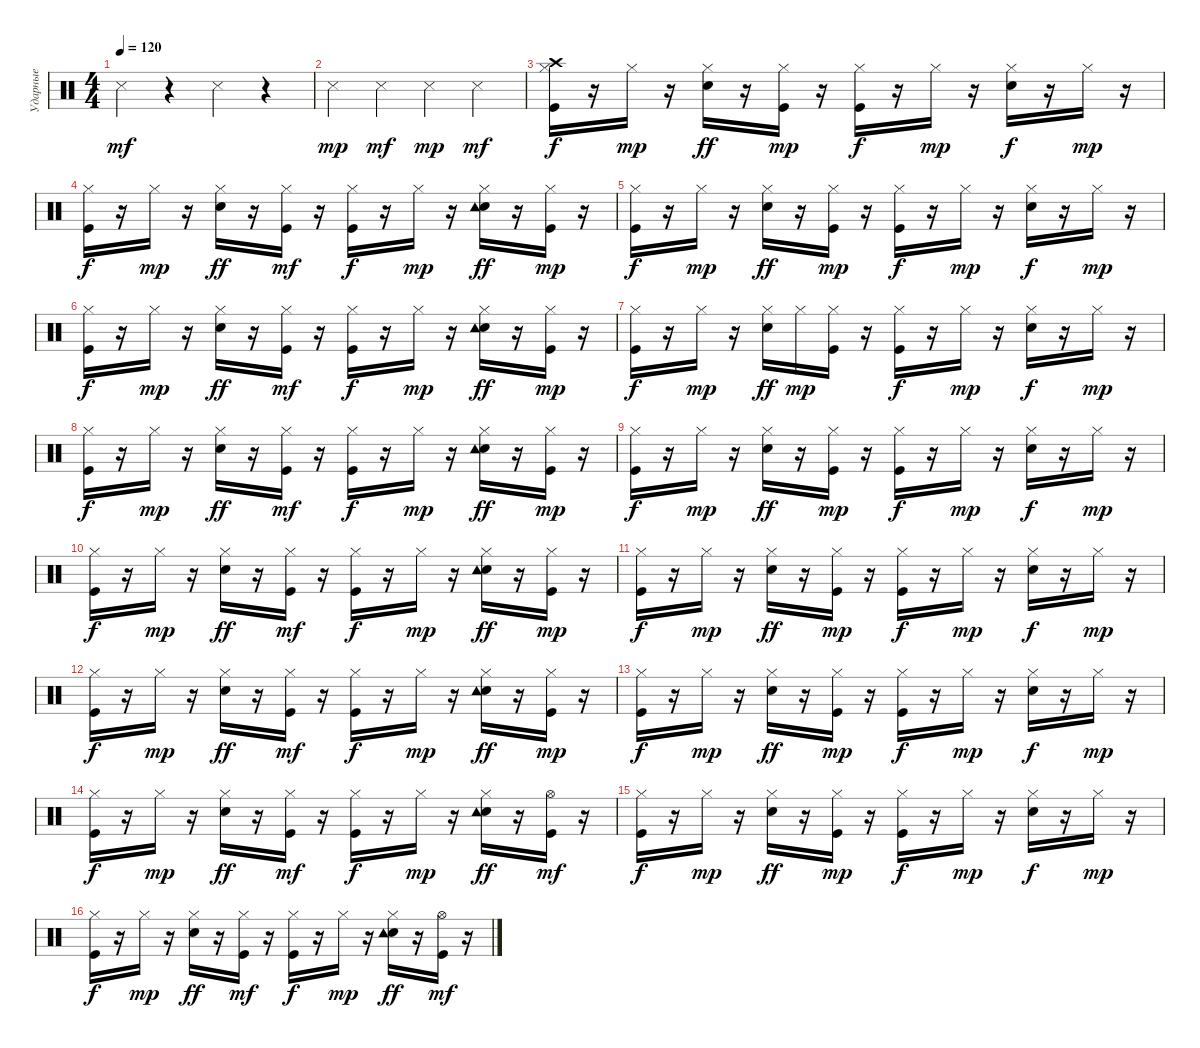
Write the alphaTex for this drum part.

\track ("Ударные" "Ударные") {instrument percussion}
\staff {score}
\articulation defaults
\ts (4 4)
\tempo 120
\clef neutral
\ks c "Snare (side stick) 3".4{dy mf}
r.4 "Snare (side stick) 3".4 r.4 |
"Snare (side stick) 3".4{dy mp} "Snare (side stick) 3".4{dy mf} "Snare (side stick) 3".4{dy mp} "Snare (side stick) 3".4{dy mf} |
("Kick (hit)" "Hi-Hat (closed)" "Crash high (hit)").16{dy f} r.16 "Hi-Hat (closed)".16{dy mp} r.16 ("Snare (hit) 2" "Hi-Hat (closed)").16{dy ff} r.16 ("Kick (hit)" "Hi-Hat (closed)").16{dy mp} r.16 ("Kick (hit)" "Hi-Hat (closed)").16{dy f} r.16 "Hi-Hat (closed)".16{dy mp} r.16 ("Snare (hit) 2" "Hi-Hat (closed)").16{dy f} r.16 "Hi-Hat (closed)".16{dy mp} r.16 |
("Kick (hit)" "Hi-Hat (closed)").16{dy f} r.16 "Hi-Hat (closed)".16{dy mp} r.16 ("Snare (hit) 2" "Hi-Hat (closed)").16{dy ff} r.16 ("Kick (hit)" "Hi-Hat (closed)").16{dy mf} r.16 ("Kick (hit)" "Hi-Hat (closed)").16{dy f} r.16 "Hi-Hat (closed)".16{dy mp} r.16 ("Snare (hit) 2" "Hi-Hat (closed)" "Tambourine (hit)").16{dy ff} r.16 ("Kick (hit)" "Hi-Hat (closed)").16{dy mp} r.16 |
("Kick (hit)" "Hi-Hat (closed)").16{dy f} r.16 "Hi-Hat (closed)".16{dy mp} r.16 ("Snare (hit) 2" "Hi-Hat (closed)").16{dy ff} r.16 ("Kick (hit)" "Hi-Hat (closed)").16{dy mp} r.16 ("Kick (hit)" "Hi-Hat (closed)").16{dy f} r.16 "Hi-Hat (closed)".16{dy mp} r.16 ("Snare (hit) 2" "Hi-Hat (closed)").16{dy f} r.16 "Hi-Hat (closed)".16{dy mp} r.16 |
("Kick (hit)" "Hi-Hat (closed)").16{dy f} r.16 "Hi-Hat (closed)".16{dy mp} r.16 ("Snare (hit) 2" "Hi-Hat (closed)").16{dy ff} r.16 ("Kick (hit)" "Hi-Hat (closed)").16{dy mf} r.16 ("Kick (hit)" "Hi-Hat (closed)").16{dy f} r.16 "Hi-Hat (closed)".16{dy mp} r.16 ("Snare (hit) 2" "Hi-Hat (closed)" "Tambourine (hit)").16{dy ff} r.16 ("Kick (hit)" "Hi-Hat (closed)").16{dy mp} r.16 |
("Kick (hit)" "Hi-Hat (closed)").16{dy f} r.16 "Hi-Hat (closed)".16{dy mp} r.16 ("Snare (hit) 2" "Hi-Hat (closed)").16{dy ff} "Hi-Hat (closed)".16{dy mp} ("Kick (hit)" "Hi-Hat (closed)").16 r.16 ("Kick (hit)" "Hi-Hat (closed)").16{dy f} r.16 "Hi-Hat (closed)".16{dy mp} r.16 ("Snare (hit) 2" "Hi-Hat (closed)").16{dy f} r.16 "Hi-Hat (closed)".16{dy mp} r.16 |
("Kick (hit)" "Hi-Hat (closed)").16{dy f} r.16 "Hi-Hat (closed)".16{dy mp} r.16 ("Snare (hit) 2" "Hi-Hat (closed)").16{dy ff} r.16 ("Kick (hit)" "Hi-Hat (closed)").16{dy mf} r.16 ("Kick (hit)" "Hi-Hat (closed)").16{dy f} r.16 "Hi-Hat (closed)".16{dy mp} r.16 ("Snare (hit) 2" "Hi-Hat (closed)" "Tambourine (hit)").16{dy ff} r.16 ("Kick (hit)" "Hi-Hat (closed)").16{dy mp} r.16 |
("Kick (hit)" "Hi-Hat (closed)").16{dy f} r.16 "Hi-Hat (closed)".16{dy mp} r.16 ("Snare (hit) 2" "Hi-Hat (closed)").16{dy ff} r.16 ("Kick (hit)" "Hi-Hat (closed)").16{dy mp} r.16 ("Kick (hit)" "Hi-Hat (closed)").16{dy f} r.16 "Hi-Hat (closed)".16{dy mp} r.16 ("Snare (hit) 2" "Hi-Hat (closed)").16{dy f} r.16 "Hi-Hat (closed)".16{dy mp} r.16 |
("Kick (hit)" "Hi-Hat (closed)").16{dy f} r.16 "Hi-Hat (closed)".16{dy mp} r.16 ("Snare (hit) 2" "Hi-Hat (closed)").16{dy ff} r.16 ("Kick (hit)" "Hi-Hat (closed)").16{dy mf} r.16 ("Kick (hit)" "Hi-Hat (closed)").16{dy f} r.16 "Hi-Hat (closed)".16{dy mp} r.16 ("Snare (hit) 2" "Hi-Hat (closed)" "Tambourine (hit)").16{dy ff} r.16 ("Kick (hit)" "Hi-Hat (closed)").16{dy mp} r.16 |
("Kick (hit)" "Hi-Hat (closed)").16{dy f} r.16 "Hi-Hat (closed)".16{dy mp} r.16 ("Snare (hit) 2" "Hi-Hat (closed)").16{dy ff} r.16 ("Kick (hit)" "Hi-Hat (closed)").16{dy mp} r.16 ("Kick (hit)" "Hi-Hat (closed)").16{dy f} r.16 "Hi-Hat (closed)".16{dy mp} r.16 ("Snare (hit) 2" "Hi-Hat (closed)").16{dy f} r.16 "Hi-Hat (closed)".16{dy mp} r.16 |
("Kick (hit)" "Hi-Hat (closed)").16{dy f} r.16 "Hi-Hat (closed)".16{dy mp} r.16 ("Snare (hit) 2" "Hi-Hat (closed)").16{dy ff} r.16 ("Kick (hit)" "Hi-Hat (closed)").16{dy mf} r.16 ("Kick (hit)" "Hi-Hat (closed)").16{dy f} r.16 "Hi-Hat (closed)".16{dy mp} r.16 ("Snare (hit) 2" "Hi-Hat (closed)" "Tambourine (hit)").16{dy ff} r.16 ("Kick (hit)" "Hi-Hat (closed)").16{dy mp} r.16 |
("Kick (hit)" "Hi-Hat (closed)").16{dy f} r.16 "Hi-Hat (closed)".16{dy mp} r.16 ("Snare (hit) 2" "Hi-Hat (closed)").16{dy ff} r.16 ("Kick (hit)" "Hi-Hat (closed)").16{dy mp} r.16 ("Kick (hit)" "Hi-Hat (closed)").16{dy f} r.16 "Hi-Hat (closed)".16{dy mp} r.16 ("Snare (hit) 2" "Hi-Hat (closed)").16{dy f} r.16 "Hi-Hat (closed)".16{dy mp} r.16 |
("Kick (hit)" "Hi-Hat (closed)").16{dy f} r.16 "Hi-Hat (closed)".16{dy mp} r.16 ("Snare (hit) 2" "Hi-Hat (closed)").16{dy ff} r.16 ("Kick (hit)" "Hi-Hat (closed)").16{dy mf} r.16 ("Kick (hit)" "Hi-Hat (closed)").16{dy f} r.16 "Hi-Hat (closed)".16{dy mp} r.16 ("Snare (hit) 2" "Hi-Hat (closed)" "Tambourine (hit)").16{dy ff} r.16 ("Kick (hit)" "Hi-Hat (open)").16{dy mf} r.16 |
("Kick (hit)" "Hi-Hat (closed)").16{dy f} r.16 "Hi-Hat (closed)".16{dy mp} r.16 ("Snare (hit) 2" "Hi-Hat (closed)").16{dy ff} r.16 ("Kick (hit)" "Hi-Hat (closed)").16{dy mp} r.16 ("Kick (hit)" "Hi-Hat (closed)").16{dy f} r.16 "Hi-Hat (closed)".16{dy mp} r.16 ("Snare (hit) 2" "Hi-Hat (closed)").16{dy f} r.16 "Hi-Hat (closed)".16{dy mp} r.16 |
("Kick (hit)" "Hi-Hat (closed)").16{dy f} r.16 "Hi-Hat (closed)".16{dy mp} r.16 ("Snare (hit) 2" "Hi-Hat (closed)").16{dy ff} r.16 ("Kick (hit)" "Hi-Hat (closed)").16{dy mf} r.16 ("Kick (hit)" "Hi-Hat (closed)").16{dy f} r.16 "Hi-Hat (closed)".16{dy mp} r.16 ("Snare (hit) 2" "Hi-Hat (closed)" "Tambourine (hit)").16{dy ff} r.16 ("Kick (hit)" "Hi-Hat (open)").16{dy mf} r.16
